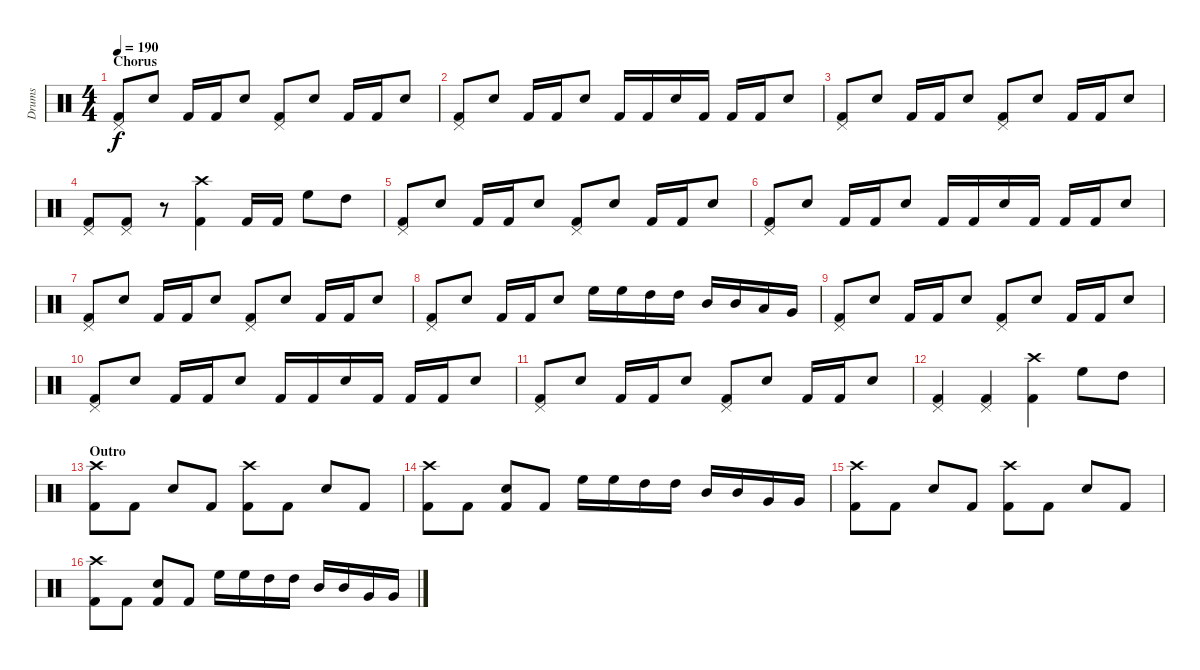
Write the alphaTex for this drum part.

\track ("Drums" "Drums") {instrument percussion}
\staff {score}
\articulation defaults
\ts (4 4)
\section ("" "Chorus")
\tempo 190
\clef neutral
\ks c
("Pedal Hi-Hat (hit)" "Kick (hit) 2").8{dy f} "Electric Snare (hit)".8 "Kick (hit) 2".16 "Kick (hit) 2".16 "Electric Snare (hit)".8 ("Pedal Hi-Hat (hit)" "Kick (hit) 2").8 "Electric Snare (hit)".8 "Kick (hit) 2".16 "Kick (hit) 2".16 "Electric Snare (hit)".8 |
("Pedal Hi-Hat (hit)" "Kick (hit) 2").8 "Electric Snare (hit)".8 "Kick (hit) 2".16 "Kick (hit) 2".16 "Electric Snare (hit)".8 "Kick (hit) 2".16 "Kick (hit) 2".16 "Electric Snare (hit)".16 "Kick (hit) 2".16 "Kick (hit) 2".16 "Kick (hit) 2".16 "Electric Snare (hit)".8 |
("Pedal Hi-Hat (hit)" "Kick (hit) 2").8 "Electric Snare (hit)".8 "Kick (hit) 2".16 "Kick (hit) 2".16 "Electric Snare (hit)".8 ("Pedal Hi-Hat (hit)" "Kick (hit) 2").8 "Electric Snare (hit)".8 "Kick (hit) 2".16 "Kick (hit) 2".16 "Electric Snare (hit)".8 |
("Pedal Hi-Hat (hit)" "Kick (hit) 2").8 ("Pedal Hi-Hat (hit)" "Kick (hit) 2").8 r.8 ("Crash high (hit)" "Kick (hit) 2").4 "Kick (hit) 2".16 "Kick (hit) 2".16 "High Floor Tom (hit)".8 "High Tom (hit)".8 |
("Pedal Hi-Hat (hit)" "Kick (hit) 2").8 "Electric Snare (hit)".8 "Kick (hit) 2".16 "Kick (hit) 2".16 "Electric Snare (hit)".8 ("Pedal Hi-Hat (hit)" "Kick (hit) 2").8 "Electric Snare (hit)".8 "Kick (hit) 2".16 "Kick (hit) 2".16 "Electric Snare (hit)".8 |
("Pedal Hi-Hat (hit)" "Kick (hit) 2").8 "Electric Snare (hit)".8 "Kick (hit) 2".16 "Kick (hit) 2".16 "Electric Snare (hit)".8 "Kick (hit) 2".16 "Kick (hit) 2".16 "Electric Snare (hit)".16 "Kick (hit) 2".16 "Kick (hit) 2".16 "Kick (hit) 2".16 "Electric Snare (hit)".8 |
("Pedal Hi-Hat (hit)" "Kick (hit) 2").8 "Electric Snare (hit)".8 "Kick (hit) 2".16 "Kick (hit) 2".16 "Electric Snare (hit)".8 ("Pedal Hi-Hat (hit)" "Kick (hit) 2").8 "Electric Snare (hit)".8 "Kick (hit) 2".16 "Kick (hit) 2".16 "Electric Snare (hit)".8 |
("Pedal Hi-Hat (hit)" "Kick (hit) 2").8 "Electric Snare (hit)".8 "Kick (hit) 2".16 "Kick (hit) 2".16 "Electric Snare (hit)".8 "High Floor Tom (hit)".16 "High Floor Tom (hit)".16 "High Tom (hit)".16 "High Tom (hit)".16 "Mid Tom (hit)".16 "Mid Tom (hit)".16 "Low Tom (hit)".16 "Very Low Tom (hit)".16 |
("Pedal Hi-Hat (hit)" "Kick (hit) 2").8 "Electric Snare (hit)".8 "Kick (hit) 2".16 "Kick (hit) 2".16 "Electric Snare (hit)".8 ("Pedal Hi-Hat (hit)" "Kick (hit) 2").8 "Electric Snare (hit)".8 "Kick (hit) 2".16 "Kick (hit) 2".16 "Electric Snare (hit)".8 |
("Pedal Hi-Hat (hit)" "Kick (hit) 2").8 "Electric Snare (hit)".8 "Kick (hit) 2".16 "Kick (hit) 2".16 "Electric Snare (hit)".8 "Kick (hit) 2".16 "Kick (hit) 2".16 "Electric Snare (hit)".16 "Kick (hit) 2".16 "Kick (hit) 2".16 "Kick (hit) 2".16 "Electric Snare (hit)".8 |
("Pedal Hi-Hat (hit)" "Kick (hit) 2").8 "Electric Snare (hit)".8 "Kick (hit) 2".16 "Kick (hit) 2".16 "Electric Snare (hit)".8 ("Pedal Hi-Hat (hit)" "Kick (hit) 2").8 "Electric Snare (hit)".8 "Kick (hit) 2".16 "Kick (hit) 2".16 "Electric Snare (hit)".8 |
("Pedal Hi-Hat (hit)" "Kick (hit) 2").4 ("Pedal Hi-Hat (hit)" "Kick (hit) 2").4 ("Crash high (hit)" "Kick (hit) 2").4 "High Floor Tom (hit)".8 "High Tom (hit)".8 |
\section ("" "Outro")
("Crash high (hit)" "Kick (hit) 2").8 "Kick (hit) 2".8 "Electric Snare (hit)".8 "Kick (hit) 2".8 ("Crash high (hit)" "Kick (hit) 2").8 "Kick (hit) 2".8 "Electric Snare (hit)".8 "Kick (hit) 2".8 |
("Crash high (hit)" "Kick (hit) 2").8 "Kick (hit) 2".8 ("Electric Snare (hit)" "Kick (hit) 2").8 "Kick (hit) 2".8 "High Floor Tom (hit)".16 "High Floor Tom (hit)".16 "High Tom (hit)".16 "High Tom (hit)".16 "Mid Tom (hit)".16 "Mid Tom (hit)".16 "Very Low Tom (hit)".16 "Very Low Tom (hit)".16 |
("Crash high (hit)" "Kick (hit) 2").8 "Kick (hit) 2".8 "Electric Snare (hit)".8 "Kick (hit) 2".8 ("Crash high (hit)" "Kick (hit) 2").8 "Kick (hit) 2".8 "Electric Snare (hit)".8 "Kick (hit) 2".8 |
("Crash high (hit)" "Kick (hit) 2").8 "Kick (hit) 2".8 ("Electric Snare (hit)" "Kick (hit) 2").8 "Kick (hit) 2".8 "High Floor Tom (hit)".16 "High Floor Tom (hit)".16 "High Tom (hit)".16 "High Tom (hit)".16 "Mid Tom (hit)".16 "Mid Tom (hit)".16 "Very Low Tom (hit)".16 "Very Low Tom (hit)".16
